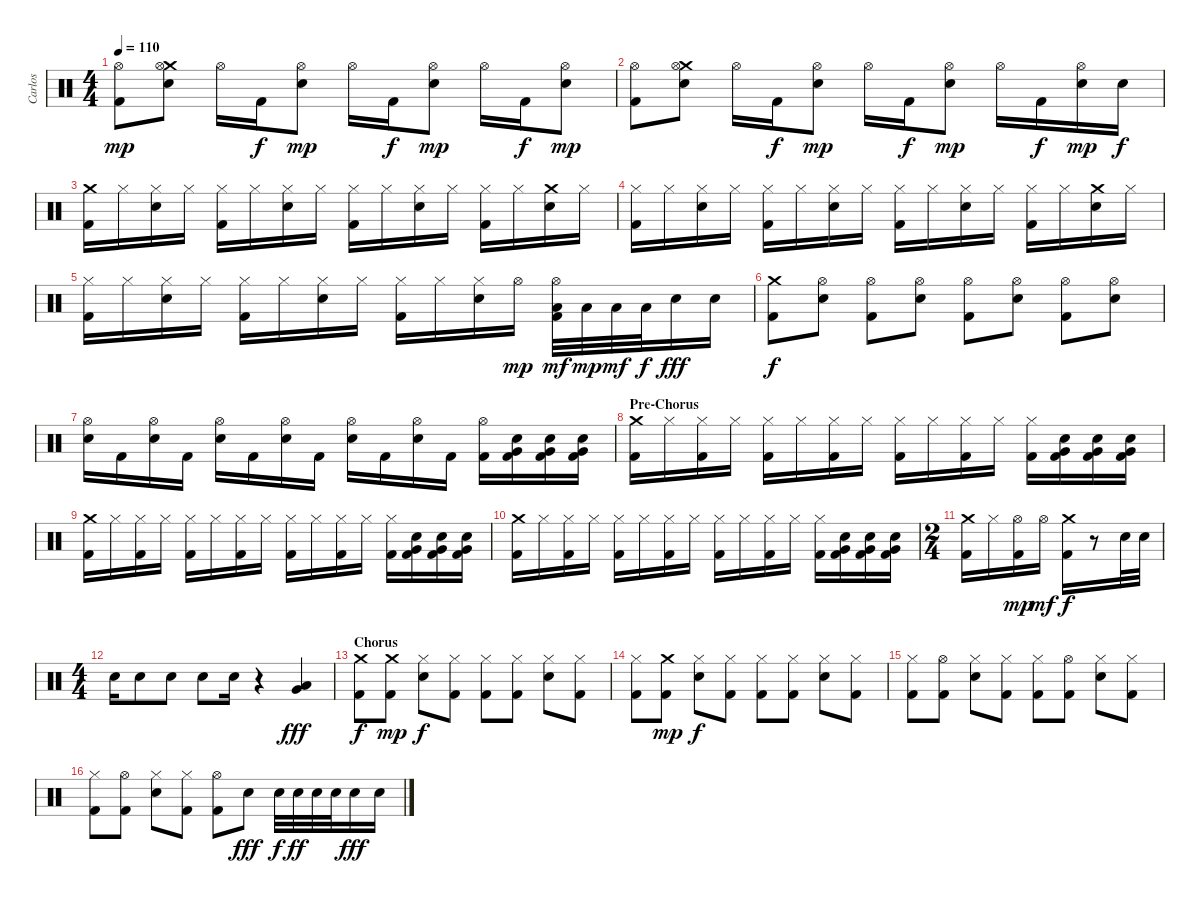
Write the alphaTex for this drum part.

\track ("Carlos" "Carlos") {instrument percussion}
\staff {score}
\articulation defaults
\ts (4 4)
\tempo 110
\clef neutral
\ks c
("Hi-Hat (open)" "Kick (hit) 2").8{dy mp} ("Crash medium (hit)" "Hi-Hat (open)" "Electric Snare (hit)").8 "Hi-Hat (open)".16 "Kick (hit) 2".16{dy f} ("Hi-Hat (open)" "Electric Snare (hit)").8{dy mp} "Hi-Hat (open)".16 "Kick (hit) 2".16{dy f} ("Hi-Hat (open)" "Electric Snare (hit)").8{dy mp} "Hi-Hat (open)".16 "Kick (hit) 2".16{dy f} ("Hi-Hat (open)" "Electric Snare (hit)").8{dy mp} |
("Hi-Hat (open)" "Kick (hit) 2").8 ("Crash medium (hit)" "Hi-Hat (open)" "Electric Snare (hit)").8 "Hi-Hat (open)".16 "Kick (hit) 2".16{dy f} ("Hi-Hat (open)" "Electric Snare (hit)").8{dy mp} "Hi-Hat (open)".16 "Kick (hit) 2".16{dy f} ("Hi-Hat (open)" "Electric Snare (hit)").8{dy mp} "Hi-Hat (open)".16 "Kick (hit) 2".16{dy f} ("Hi-Hat (open)" "Electric Snare (hit)").16{dy mp} "Electric Snare (hit)".16{dy f} |
("Crash medium (hit)" "Kick (hit) 2").16 "Hi-Hat (closed)".16 ("Hi-Hat (closed)" "Electric Snare (hit)").16 "Hi-Hat (closed)".16 ("Hi-Hat (closed)" "Kick (hit) 2").16 "Hi-Hat (closed)".16 ("Hi-Hat (closed)" "Electric Snare (hit)").16 "Hi-Hat (closed)".16 ("Hi-Hat (closed)" "Kick (hit) 2").16 "Hi-Hat (closed)".16 ("Hi-Hat (closed)" "Electric Snare (hit)").16 "Hi-Hat (closed)".16 ("Hi-Hat (closed)" "Kick (hit) 2").16 "Hi-Hat (closed)".16 ("Crash medium (hit)" "Electric Snare (hit)").16 "Hi-Hat (closed)".16 |
("Hi-Hat (closed)" "Kick (hit) 2").16 "Hi-Hat (closed)".16 ("Hi-Hat (closed)" "Electric Snare (hit)").16 "Hi-Hat (closed)".16 ("Hi-Hat (closed)" "Kick (hit) 2").16 "Hi-Hat (closed)".16 ("Hi-Hat (closed)" "Electric Snare (hit)").16 "Hi-Hat (closed)".16 ("Hi-Hat (closed)" "Kick (hit) 2").16 "Hi-Hat (closed)".16 ("Hi-Hat (closed)" "Electric Snare (hit)").16 "Hi-Hat (closed)".16 ("Hi-Hat (closed)" "Kick (hit) 2").16 "Hi-Hat (closed)".16 ("Crash medium (hit)" "Electric Snare (hit)").16 "Hi-Hat (closed)".16 |
("Hi-Hat (closed)" "Kick (hit) 2").16 "Hi-Hat (closed)".16 ("Hi-Hat (closed)" "Electric Snare (hit)").16 "Hi-Hat (closed)".16 ("Hi-Hat (closed)" "Kick (hit) 2").16 "Hi-Hat (closed)".16 ("Hi-Hat (closed)" "Electric Snare (hit)").16 "Hi-Hat (closed)".16 ("Hi-Hat (closed)" "Kick (hit) 2").16 "Hi-Hat (closed)".16 ("Hi-Hat (closed)" "Electric Snare (hit)").16 "Hi-Hat (open)".16{dy mp} ("Hi-Hat (open)" "Low Tom (hit)" "Kick (hit) 2").32{dy mf} "Low Tom (hit)".32{dy mp} "Low Tom (hit)".32{dy mf} "Low Tom (hit)".32{dy f} "Electric Snare (hit)".16{dy fff} "Electric Snare (hit)".16 |
("Crash medium (hit)" "Kick (hit) 2").8{dy f} ("Hi-Hat (open)" "Electric Snare (hit)").8 ("Hi-Hat (open)" "Kick (hit) 2").8 ("Hi-Hat (open)" "Electric Snare (hit)").8 ("Hi-Hat (open)" "Kick (hit) 2").8 ("Hi-Hat (open)" "Electric Snare (hit)").8 ("Hi-Hat (open)" "Kick (hit) 2").8 ("Hi-Hat (open)" "Electric Snare (hit)").8 |
("Hi-Hat (open)" "Electric Snare (hit)").16 "Kick (hit) 2".16 ("Hi-Hat (open)" "Electric Snare (hit)").16 "Kick (hit) 2".16 ("Hi-Hat (open)" "Electric Snare (hit)").16 "Kick (hit) 2".16 ("Hi-Hat (open)" "Electric Snare (hit)").16 "Kick (hit) 2".16 ("Hi-Hat (open)" "Electric Snare (hit)").16 "Kick (hit) 2".16 ("Hi-Hat (open)" "Electric Snare (hit)").16 "Kick (hit) 2".16 ("Hi-Hat (open)" "Kick (hit) 2").16 ("Electric Snare (hit)" "Very Low Tom (hit)" "Kick (hit) 2").16 ("Electric Snare (hit)" "Very Low Tom (hit)" "Kick (hit) 2").16 ("Electric Snare (hit)" "Very Low Tom (hit)" "Kick (hit) 2").16 |
\section ("" "Pre-Chorus")
("Crash medium (hit)" "Kick (hit) 2").16 "Hi-Hat (closed)".16 ("Hi-Hat (closed)" "Kick (hit) 2").16 "Hi-Hat (closed)".16 ("Hi-Hat (closed)" "Kick (hit) 2").16 "Hi-Hat (closed)".16 ("Hi-Hat (closed)" "Kick (hit) 2").16 "Hi-Hat (closed)".16 ("Hi-Hat (closed)" "Kick (hit) 2").16 "Hi-Hat (closed)".16 ("Hi-Hat (closed)" "Kick (hit) 2").16 "Hi-Hat (closed)".16 ("Hi-Hat (closed)" "Kick (hit) 2").16 ("Electric Snare (hit)" "Very Low Tom (hit)" "Kick (hit) 2").16 ("Electric Snare (hit)" "Very Low Tom (hit)" "Kick (hit) 2").16 ("Electric Snare (hit)" "Very Low Tom (hit)" "Kick (hit) 2").16 |
("Crash medium (hit)" "Kick (hit) 2").16 "Hi-Hat (closed)".16 ("Hi-Hat (closed)" "Kick (hit) 2").16 "Hi-Hat (closed)".16 ("Hi-Hat (closed)" "Kick (hit) 2").16 "Hi-Hat (closed)".16 ("Hi-Hat (closed)" "Kick (hit) 2").16 "Hi-Hat (closed)".16 ("Hi-Hat (closed)" "Kick (hit) 2").16 "Hi-Hat (closed)".16 ("Hi-Hat (closed)" "Kick (hit) 2").16 "Hi-Hat (closed)".16 ("Hi-Hat (closed)" "Kick (hit) 2").16 ("Electric Snare (hit)" "Very Low Tom (hit)" "Kick (hit) 2").16 ("Electric Snare (hit)" "Very Low Tom (hit)" "Kick (hit) 2").16 ("Electric Snare (hit)" "Very Low Tom (hit)" "Kick (hit) 2").16 |
("Crash medium (hit)" "Kick (hit) 2").16 "Hi-Hat (closed)".16 ("Hi-Hat (closed)" "Kick (hit) 2").16 "Hi-Hat (closed)".16 ("Hi-Hat (closed)" "Kick (hit) 2").16 "Hi-Hat (closed)".16 ("Hi-Hat (closed)" "Kick (hit) 2").16 "Hi-Hat (closed)".16 ("Hi-Hat (closed)" "Kick (hit) 2").16 "Hi-Hat (closed)".16 ("Hi-Hat (closed)" "Kick (hit) 2").16 "Hi-Hat (closed)".16 ("Hi-Hat (closed)" "Kick (hit) 2").16 ("Electric Snare (hit)" "Very Low Tom (hit)" "Kick (hit) 2").16 ("Electric Snare (hit)" "Very Low Tom (hit)" "Kick (hit) 2").16 ("Electric Snare (hit)" "Very Low Tom (hit)" "Kick (hit) 2").16 |
\ts (2 4)
("Crash medium (hit)" "Kick (hit) 2").16 "Hi-Hat (closed)".16 ("Hi-Hat (open)" "Kick (hit) 2").16{dy mp} "Hi-Hat (open)".16{dy mf} ("Crash medium (hit)" "Kick (hit) 2").16{dy f} r.8 "Electric Snare (hit)".32 "Electric Snare (hit)".32 |
\ts (4 4)
"Electric Snare (hit)".16 "Electric Snare (hit)".8 "Electric Snare (hit)".8 "Electric Snare (hit)".8 "Electric Snare (hit)".16 r.4 ("Low Tom (hit)" "Very Low Tom (hit)").4{dy fff} |
\section ("" "Chorus")
("Crash medium (hit)" "Kick (hit) 2").8{dy f} ("Crash medium (hit)" "Kick (hit) 2").8{dy mp} ("Hi-Hat (closed)" "Electric Snare (hit)").8{dy f} ("Hi-Hat (closed)" "Kick (hit) 2").8 ("Hi-Hat (closed)" "Kick (hit) 2").8 ("Hi-Hat (closed)" "Kick (hit) 2").8 ("Hi-Hat (closed)" "Electric Snare (hit)").8 ("Hi-Hat (closed)" "Kick (hit) 2").8 |
("Hi-Hat (closed)" "Kick (hit) 2").8 ("Crash medium (hit)" "Kick (hit) 2").8{dy mp} ("Hi-Hat (closed)" "Electric Snare (hit)").8{dy f} ("Hi-Hat (closed)" "Kick (hit) 2").8 ("Hi-Hat (closed)" "Kick (hit) 2").8 ("Hi-Hat (closed)" "Kick (hit) 2").8 ("Hi-Hat (closed)" "Electric Snare (hit)").8 ("Hi-Hat (closed)" "Kick (hit) 2").8 |
("Hi-Hat (closed)" "Kick (hit) 2").8 ("Hi-Hat (open)" "Kick (hit) 2").8 ("Hi-Hat (closed)" "Electric Snare (hit)").8 ("Hi-Hat (closed)" "Kick (hit) 2").8 ("Hi-Hat (closed)" "Kick (hit) 2").8 ("Hi-Hat (open)" "Kick (hit) 2").8 ("Hi-Hat (closed)" "Electric Snare (hit)").8 ("Hi-Hat (closed)" "Kick (hit) 2").8 |
("Hi-Hat (closed)" "Kick (hit) 2").8 ("Hi-Hat (open)" "Kick (hit) 2").8 ("Hi-Hat (closed)" "Electric Snare (hit)").8 ("Hi-Hat (closed)" "Kick (hit) 2").8 ("Hi-Hat (open)" "Kick (hit) 2").8 "Electric Snare (hit)".8{dy fff} "Electric Snare (hit)".32{dy f} "Electric Snare (hit)".32{dy ff} "Electric Snare (hit)".32 "Electric Snare (hit)".32 "Electric Snare (hit)".16{dy fff} "Electric Snare (hit)".16
